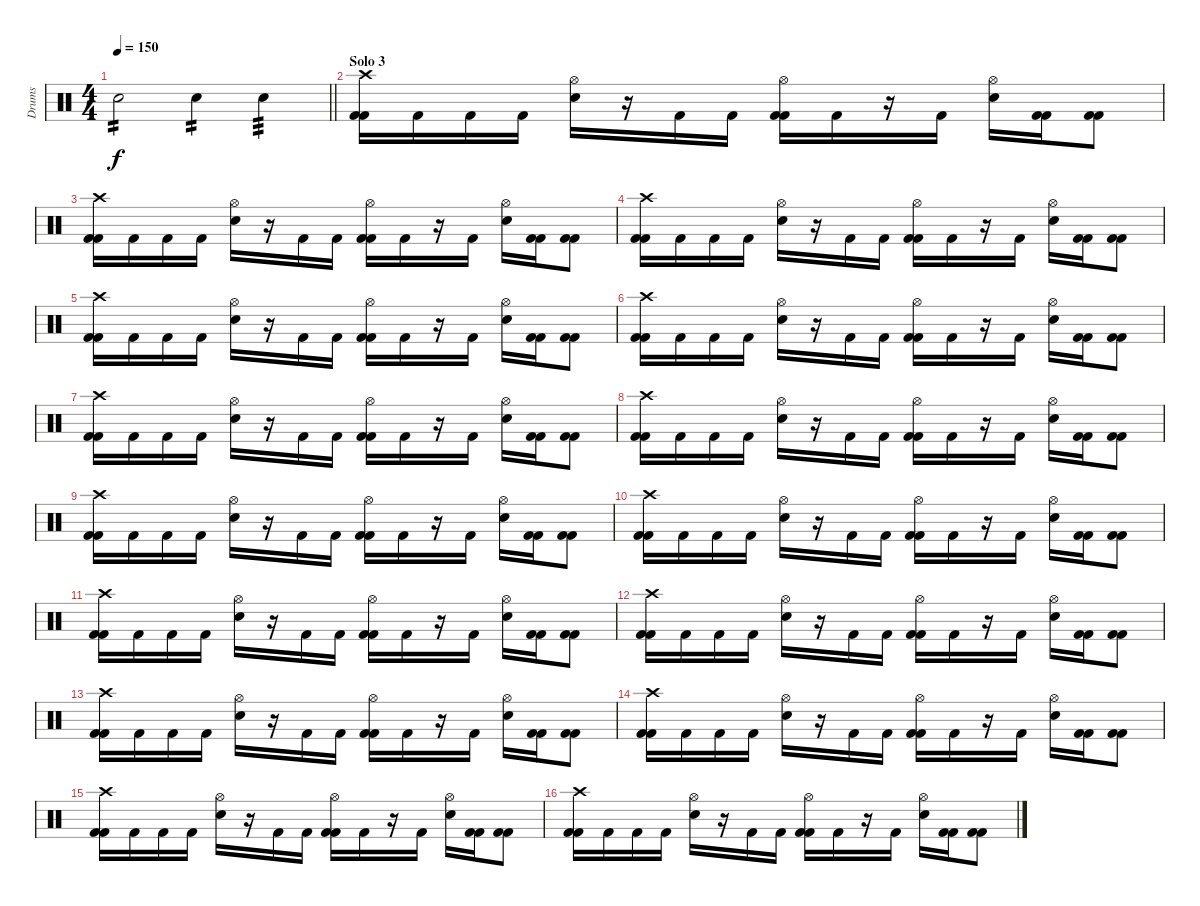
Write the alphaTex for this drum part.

\track ("Drums" "Drums") {instrument percussion}
\staff {score}
\articulation defaults
\ts (4 4)
\tempo 150
\clef neutral
\barLineRight lightlight
\ks c "Electric Snare (hit)".2{tp 2 dy f} "Electric Snare (hit)".4{tp 2} "Electric Snare (hit)".4{tp 3}
|
\section ("" "Solo 3")
("Crash high (hit)" "Kick (hit) 2" "Kick (hit) 2").16 "Kick (hit) 2".16 "Kick (hit) 2".16 "Kick (hit) 2".16 ("Electric Snare (hit)" "Hi-Hat (open)").16 r.16 "Kick (hit) 2".16 "Kick (hit) 2".16 ("Hi-Hat (open)" "Kick (hit) 2" "Kick (hit) 2").16 "Kick (hit) 2".16 r.16 "Kick (hit) 2".16 ("Electric Snare (hit)" "Hi-Hat (open)").16 ("Kick (hit) 2" "Kick (hit) 2").16 ("Kick (hit) 2" "Kick (hit) 2").8 |
("Crash high (hit)" "Kick (hit) 2" "Kick (hit) 2").16 "Kick (hit) 2".16 "Kick (hit) 2".16 "Kick (hit) 2".16 ("Electric Snare (hit)" "Hi-Hat (open)").16 r.16 "Kick (hit) 2".16 "Kick (hit) 2".16 ("Hi-Hat (open)" "Kick (hit) 2" "Kick (hit) 2").16 "Kick (hit) 2".16 r.16 "Kick (hit) 2".16 ("Electric Snare (hit)" "Hi-Hat (open)").16 ("Kick (hit) 2" "Kick (hit) 2").16 ("Kick (hit) 2" "Kick (hit) 2").8 |
("Crash high (hit)" "Kick (hit) 2" "Kick (hit) 2").16 "Kick (hit) 2".16 "Kick (hit) 2".16 "Kick (hit) 2".16 ("Electric Snare (hit)" "Hi-Hat (open)").16 r.16 "Kick (hit) 2".16 "Kick (hit) 2".16 ("Hi-Hat (open)" "Kick (hit) 2" "Kick (hit) 2").16 "Kick (hit) 2".16 r.16 "Kick (hit) 2".16 ("Electric Snare (hit)" "Hi-Hat (open)").16 ("Kick (hit) 2" "Kick (hit) 2").16 ("Kick (hit) 2" "Kick (hit) 2").8 |
("Crash high (hit)" "Kick (hit) 2" "Kick (hit) 2").16 "Kick (hit) 2".16 "Kick (hit) 2".16 "Kick (hit) 2".16 ("Electric Snare (hit)" "Hi-Hat (open)").16 r.16 "Kick (hit) 2".16 "Kick (hit) 2".16 ("Hi-Hat (open)" "Kick (hit) 2" "Kick (hit) 2").16 "Kick (hit) 2".16 r.16 "Kick (hit) 2".16 ("Electric Snare (hit)" "Hi-Hat (open)").16 ("Kick (hit) 2" "Kick (hit) 2").16 ("Kick (hit) 2" "Kick (hit) 2").8 |
("Crash high (hit)" "Kick (hit) 2" "Kick (hit) 2").16 "Kick (hit) 2".16 "Kick (hit) 2".16 "Kick (hit) 2".16 ("Electric Snare (hit)" "Hi-Hat (open)").16 r.16 "Kick (hit) 2".16 "Kick (hit) 2".16 ("Hi-Hat (open)" "Kick (hit) 2" "Kick (hit) 2").16 "Kick (hit) 2".16 r.16 "Kick (hit) 2".16 ("Electric Snare (hit)" "Hi-Hat (open)").16 ("Kick (hit) 2" "Kick (hit) 2").16 ("Kick (hit) 2" "Kick (hit) 2").8 |
("Crash high (hit)" "Kick (hit) 2" "Kick (hit) 2").16 "Kick (hit) 2".16 "Kick (hit) 2".16 "Kick (hit) 2".16 ("Electric Snare (hit)" "Hi-Hat (open)").16 r.16 "Kick (hit) 2".16 "Kick (hit) 2".16 ("Hi-Hat (open)" "Kick (hit) 2" "Kick (hit) 2").16 "Kick (hit) 2".16 r.16 "Kick (hit) 2".16 ("Electric Snare (hit)" "Hi-Hat (open)").16 ("Kick (hit) 2" "Kick (hit) 2").16 ("Kick (hit) 2" "Kick (hit) 2").8 |
("Crash high (hit)" "Kick (hit) 2" "Kick (hit) 2").16 "Kick (hit) 2".16 "Kick (hit) 2".16 "Kick (hit) 2".16 ("Electric Snare (hit)" "Hi-Hat (open)").16 r.16 "Kick (hit) 2".16 "Kick (hit) 2".16 ("Hi-Hat (open)" "Kick (hit) 2" "Kick (hit) 2").16 "Kick (hit) 2".16 r.16 "Kick (hit) 2".16 ("Electric Snare (hit)" "Hi-Hat (open)").16 ("Kick (hit) 2" "Kick (hit) 2").16 ("Kick (hit) 2" "Kick (hit) 2").8 |
("Crash high (hit)" "Kick (hit) 2" "Kick (hit) 2").16 "Kick (hit) 2".16 "Kick (hit) 2".16 "Kick (hit) 2".16 ("Electric Snare (hit)" "Hi-Hat (open)").16 r.16 "Kick (hit) 2".16 "Kick (hit) 2".16 ("Hi-Hat (open)" "Kick (hit) 2" "Kick (hit) 2").16 "Kick (hit) 2".16 r.16 "Kick (hit) 2".16 ("Electric Snare (hit)" "Hi-Hat (open)").16 ("Kick (hit) 2" "Kick (hit) 2").16 ("Kick (hit) 2" "Kick (hit) 2").8 |
("Crash high (hit)" "Kick (hit) 2" "Kick (hit) 2").16 "Kick (hit) 2".16 "Kick (hit) 2".16 "Kick (hit) 2".16 ("Electric Snare (hit)" "Hi-Hat (open)").16 r.16 "Kick (hit) 2".16 "Kick (hit) 2".16 ("Hi-Hat (open)" "Kick (hit) 2" "Kick (hit) 2").16 "Kick (hit) 2".16 r.16 "Kick (hit) 2".16 ("Electric Snare (hit)" "Hi-Hat (open)").16 ("Kick (hit) 2" "Kick (hit) 2").16 ("Kick (hit) 2" "Kick (hit) 2").8 |
("Crash high (hit)" "Kick (hit) 2" "Kick (hit) 2").16 "Kick (hit) 2".16 "Kick (hit) 2".16 "Kick (hit) 2".16 ("Electric Snare (hit)" "Hi-Hat (open)").16 r.16 "Kick (hit) 2".16 "Kick (hit) 2".16 ("Hi-Hat (open)" "Kick (hit) 2" "Kick (hit) 2").16 "Kick (hit) 2".16 r.16 "Kick (hit) 2".16 ("Electric Snare (hit)" "Hi-Hat (open)").16 ("Kick (hit) 2" "Kick (hit) 2").16 ("Kick (hit) 2" "Kick (hit) 2").8 |
("Crash high (hit)" "Kick (hit) 2" "Kick (hit) 2").16 "Kick (hit) 2".16 "Kick (hit) 2".16 "Kick (hit) 2".16 ("Electric Snare (hit)" "Hi-Hat (open)").16 r.16 "Kick (hit) 2".16 "Kick (hit) 2".16 ("Hi-Hat (open)" "Kick (hit) 2" "Kick (hit) 2").16 "Kick (hit) 2".16 r.16 "Kick (hit) 2".16 ("Electric Snare (hit)" "Hi-Hat (open)").16 ("Kick (hit) 2" "Kick (hit) 2").16 ("Kick (hit) 2" "Kick (hit) 2").8 |
("Crash high (hit)" "Kick (hit) 2" "Kick (hit) 2").16 "Kick (hit) 2".16 "Kick (hit) 2".16 "Kick (hit) 2".16 ("Electric Snare (hit)" "Hi-Hat (open)").16 r.16 "Kick (hit) 2".16 "Kick (hit) 2".16 ("Hi-Hat (open)" "Kick (hit) 2" "Kick (hit) 2").16 "Kick (hit) 2".16 r.16 "Kick (hit) 2".16 ("Electric Snare (hit)" "Hi-Hat (open)").16 ("Kick (hit) 2" "Kick (hit) 2").16 ("Kick (hit) 2" "Kick (hit) 2").8 |
("Crash high (hit)" "Kick (hit) 2" "Kick (hit) 2").16 "Kick (hit) 2".16 "Kick (hit) 2".16 "Kick (hit) 2".16 ("Electric Snare (hit)" "Hi-Hat (open)").16 r.16 "Kick (hit) 2".16 "Kick (hit) 2".16 ("Hi-Hat (open)" "Kick (hit) 2" "Kick (hit) 2").16 "Kick (hit) 2".16 r.16 "Kick (hit) 2".16 ("Electric Snare (hit)" "Hi-Hat (open)").16 ("Kick (hit) 2" "Kick (hit) 2").16 ("Kick (hit) 2" "Kick (hit) 2").8 |
("Crash high (hit)" "Kick (hit) 2" "Kick (hit) 2").16 "Kick (hit) 2".16 "Kick (hit) 2".16 "Kick (hit) 2".16 ("Electric Snare (hit)" "Hi-Hat (open)").16 r.16 "Kick (hit) 2".16 "Kick (hit) 2".16 ("Hi-Hat (open)" "Kick (hit) 2" "Kick (hit) 2").16 "Kick (hit) 2".16 r.16 "Kick (hit) 2".16 ("Electric Snare (hit)" "Hi-Hat (open)").16 ("Kick (hit) 2" "Kick (hit) 2").16 ("Kick (hit) 2" "Kick (hit) 2").8 |
("Crash high (hit)" "Kick (hit) 2" "Kick (hit) 2").16 "Kick (hit) 2".16 "Kick (hit) 2".16 "Kick (hit) 2".16 ("Electric Snare (hit)" "Hi-Hat (open)").16 r.16 "Kick (hit) 2".16 "Kick (hit) 2".16 ("Hi-Hat (open)" "Kick (hit) 2" "Kick (hit) 2").16 "Kick (hit) 2".16 r.16 "Kick (hit) 2".16 ("Electric Snare (hit)" "Hi-Hat (open)").16 ("Kick (hit) 2" "Kick (hit) 2").16 ("Kick (hit) 2" "Kick (hit) 2").8
